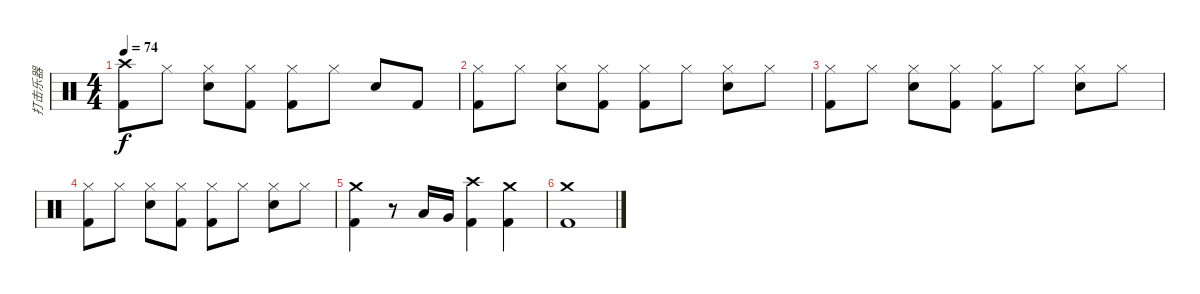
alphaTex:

\track ("打击乐器" "打击乐器") {instrument percussion}
\staff {score}
\articulation defaults
\ts (4 4)
\tempo 74
\clef neutral
\ks c
("Crash high (hit)" "Kick (hit) 2").8{dy f} "Hi-Hat (closed)".8 ("Electric Snare (hit)" "Hi-Hat (closed)").8 ("Kick (hit) 2" "Hi-Hat (closed)").8 ("Kick (hit) 2" "Hi-Hat (closed)").8 "Hi-Hat (closed)".8 "Electric Snare (hit)".8 "Kick (hit) 2".8 |
("Hi-Hat (closed)" "Kick (hit) 2").8 "Hi-Hat (closed)".8 ("Electric Snare (hit)" "Hi-Hat (closed)").8 ("Kick (hit) 2" "Hi-Hat (closed)").8 ("Kick (hit) 2" "Hi-Hat (closed)").8 "Hi-Hat (closed)".8 ("Electric Snare (hit)" "Hi-Hat (closed)").8 "Hi-Hat (closed)".8 |
("Hi-Hat (closed)" "Kick (hit) 2").8 "Hi-Hat (closed)".8 ("Electric Snare (hit)" "Hi-Hat (closed)").8 ("Kick (hit) 2" "Hi-Hat (closed)").8 ("Kick (hit) 2" "Hi-Hat (closed)").8 "Hi-Hat (closed)".8 ("Electric Snare (hit)" "Hi-Hat (closed)").8 "Hi-Hat (closed)".8 |
("Hi-Hat (closed)" "Kick (hit) 2").8 "Hi-Hat (closed)".8 ("Electric Snare (hit)" "Hi-Hat (closed)").8 ("Kick (hit) 2" "Hi-Hat (closed)").8 ("Kick (hit) 2" "Hi-Hat (closed)").8 "Hi-Hat (closed)".8 ("Electric Snare (hit)" "Hi-Hat (closed)").8 "Hi-Hat (closed)".8 |
("Crash medium (hit)" "Kick (hit) 2").4 r.8 "Low Tom (hit)".16 "Very Low Tom (hit)".16 ("Crash high (hit)" "Kick (hit) 2").4 ("Crash medium (hit)" "Kick (hit) 2").4 |
("Crash medium (hit)" "Kick (hit) 2").1
